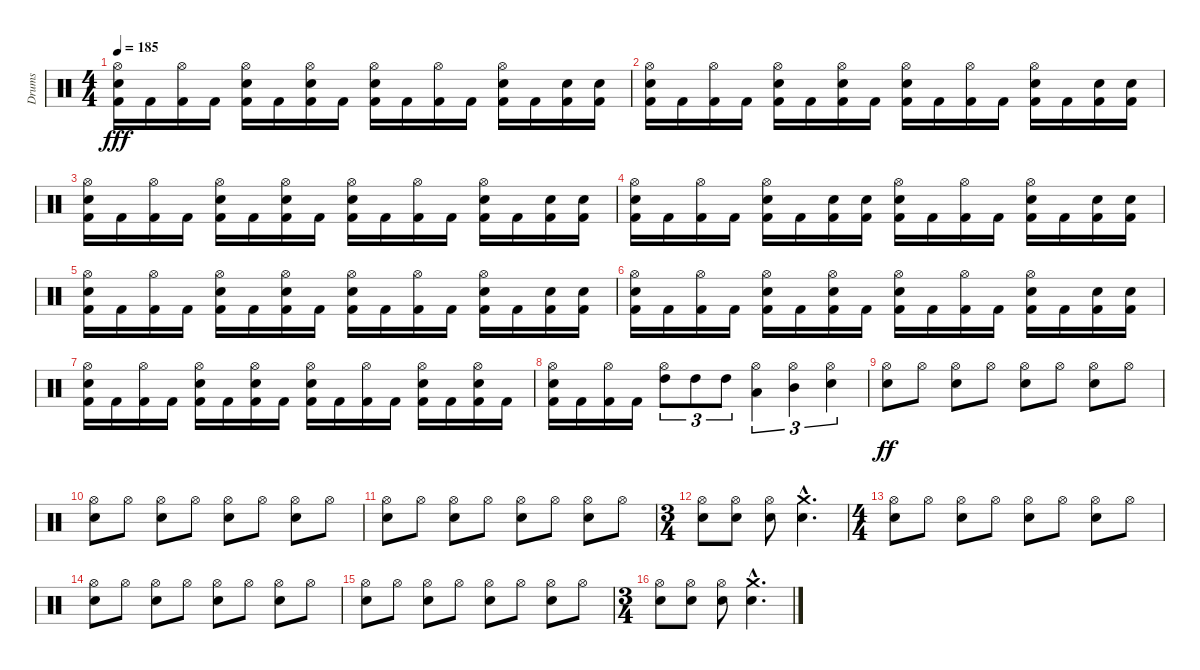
\track ("Drums" "Drums") {instrument percussion}
\staff {score}
\articulation defaults
\ts (4 4)
\tempo 185
\clef neutral
\ks c
("Hi-Hat (open)" "Electric Snare (hit)" "Kick (hit) 2").16{dy fff} "Kick (hit) 2".16 ("Hi-Hat (open)" "Kick (hit) 2").16 "Kick (hit) 2".16 ("Hi-Hat (open)" "Electric Snare (hit)" "Kick (hit) 2").16 "Kick (hit) 2".16 ("Hi-Hat (open)" "Electric Snare (hit)" "Kick (hit) 2").16 "Kick (hit) 2".16 ("Hi-Hat (open)" "Electric Snare (hit)" "Kick (hit) 2").16 "Kick (hit) 2".16 ("Hi-Hat (open)" "Kick (hit) 2").16 "Kick (hit) 2".16 ("Hi-Hat (open)" "Electric Snare (hit)" "Kick (hit) 2").16 "Kick (hit) 2".16 ("Electric Snare (hit)" "Kick (hit) 2").16 ("Electric Snare (hit)" "Kick (hit) 2").16 |
("Hi-Hat (open)" "Electric Snare (hit)" "Kick (hit) 2").16 "Kick (hit) 2".16 ("Hi-Hat (open)" "Kick (hit) 2").16 "Kick (hit) 2".16 ("Hi-Hat (open)" "Electric Snare (hit)" "Kick (hit) 2").16 "Kick (hit) 2".16 ("Hi-Hat (open)" "Electric Snare (hit)" "Kick (hit) 2").16 "Kick (hit) 2".16 ("Hi-Hat (open)" "Electric Snare (hit)" "Kick (hit) 2").16 "Kick (hit) 2".16 ("Hi-Hat (open)" "Kick (hit) 2").16 "Kick (hit) 2".16 ("Hi-Hat (open)" "Electric Snare (hit)" "Kick (hit) 2").16 "Kick (hit) 2".16 ("Electric Snare (hit)" "Kick (hit) 2").16 ("Electric Snare (hit)" "Kick (hit) 2").16 |
("Hi-Hat (open)" "Electric Snare (hit)" "Kick (hit) 2").16 "Kick (hit) 2".16 ("Hi-Hat (open)" "Kick (hit) 2").16 "Kick (hit) 2".16 ("Hi-Hat (open)" "Electric Snare (hit)" "Kick (hit) 2").16 "Kick (hit) 2".16 ("Hi-Hat (open)" "Electric Snare (hit)" "Kick (hit) 2").16 "Kick (hit) 2".16 ("Hi-Hat (open)" "Electric Snare (hit)" "Kick (hit) 2").16 "Kick (hit) 2".16 ("Hi-Hat (open)" "Kick (hit) 2").16 "Kick (hit) 2".16 ("Hi-Hat (open)" "Electric Snare (hit)" "Kick (hit) 2").16 "Kick (hit) 2".16 ("Electric Snare (hit)" "Kick (hit) 2").16 ("Electric Snare (hit)" "Kick (hit) 2").16 |
("Hi-Hat (open)" "Electric Snare (hit)" "Kick (hit) 2").16 "Kick (hit) 2".16 ("Hi-Hat (open)" "Kick (hit) 2").16 "Kick (hit) 2".16 ("Hi-Hat (open)" "Electric Snare (hit)" "Kick (hit) 2").16 "Kick (hit) 2".16 ("Electric Snare (hit)" "Kick (hit) 2").16 ("Electric Snare (hit)" "Kick (hit) 2").16 ("Hi-Hat (open)" "Electric Snare (hit)" "Kick (hit) 2").16 "Kick (hit) 2".16 ("Hi-Hat (open)" "Kick (hit) 2").16 "Kick (hit) 2".16 ("Hi-Hat (open)" "Electric Snare (hit)" "Kick (hit) 2").16 "Kick (hit) 2".16 ("Electric Snare (hit)" "Kick (hit) 2").16 ("Electric Snare (hit)" "Kick (hit) 2").16 |
("Hi-Hat (open)" "Electric Snare (hit)" "Kick (hit) 2").16 "Kick (hit) 2".16 ("Hi-Hat (open)" "Kick (hit) 2").16 "Kick (hit) 2".16 ("Hi-Hat (open)" "Electric Snare (hit)" "Kick (hit) 2").16 "Kick (hit) 2".16 ("Hi-Hat (open)" "Electric Snare (hit)" "Kick (hit) 2").16 "Kick (hit) 2".16 ("Hi-Hat (open)" "Electric Snare (hit)" "Kick (hit) 2").16 "Kick (hit) 2".16 ("Hi-Hat (open)" "Kick (hit) 2").16 "Kick (hit) 2".16 ("Hi-Hat (open)" "Electric Snare (hit)" "Kick (hit) 2").16 "Kick (hit) 2".16 ("Electric Snare (hit)" "Kick (hit) 2").16 ("Electric Snare (hit)" "Kick (hit) 2").16 |
("Hi-Hat (open)" "Electric Snare (hit)" "Kick (hit) 2").16 "Kick (hit) 2".16 ("Hi-Hat (open)" "Kick (hit) 2").16 "Kick (hit) 2".16 ("Hi-Hat (open)" "Electric Snare (hit)" "Kick (hit) 2").16 "Kick (hit) 2".16 ("Hi-Hat (open)" "Electric Snare (hit)" "Kick (hit) 2").16 "Kick (hit) 2".16 ("Hi-Hat (open)" "Electric Snare (hit)" "Kick (hit) 2").16 "Kick (hit) 2".16 ("Hi-Hat (open)" "Kick (hit) 2").16 "Kick (hit) 2".16 ("Hi-Hat (open)" "Electric Snare (hit)" "Kick (hit) 2").16 "Kick (hit) 2".16 ("Electric Snare (hit)" "Kick (hit) 2").16 ("Electric Snare (hit)" "Kick (hit) 2").16 |
("Hi-Hat (open)" "Electric Snare (hit)" "Kick (hit) 2").16 "Kick (hit) 2".16 ("Hi-Hat (open)" "Kick (hit) 2").16 "Kick (hit) 2".16 ("Hi-Hat (open)" "Electric Snare (hit)" "Kick (hit) 2").16 "Kick (hit) 2".16 ("Hi-Hat (open)" "Electric Snare (hit)" "Kick (hit) 2").16 "Kick (hit) 2".16 ("Hi-Hat (open)" "Electric Snare (hit)" "Kick (hit) 2").16 "Kick (hit) 2".16 ("Hi-Hat (open)" "Kick (hit) 2").16 "Kick (hit) 2".16 ("Hi-Hat (open)" "Electric Snare (hit)" "Kick (hit) 2").16 "Kick (hit) 2".16 ("Hi-Hat (open)" "Electric Snare (hit)" "Kick (hit) 2").16 "Kick (hit) 2".16 |
("Hi-Hat (open)" "Electric Snare (hit)" "Kick (hit) 2").16 "Kick (hit) 2".16 ("Hi-Hat (open)" "Kick (hit) 2").16 "Kick (hit) 2".16 ("Hi-Hat (open)" "High Tom (hit)").8{tu (3 2)} "High Tom (hit)".8{tu (3 2)} "High Tom (hit)".8{tu (3 2)} ("Hi-Hat (open)" "Low Tom (hit)").4{tu (3 2)} ("Hi-Hat (open)" "Mid Tom (hit)").4{tu (3 2)} ("Hi-Hat (open)" "Electric Snare (hit)").4{tu (3 2)} |
("Hi-Hat (open)" "Electric Snare (hit)").8{dy ff} "Hi-Hat (open)".8 ("Hi-Hat (open)" "Electric Snare (hit)").8 "Hi-Hat (open)".8 ("Hi-Hat (open)" "Electric Snare (hit)").8 "Hi-Hat (open)".8 ("Hi-Hat (open)" "Electric Snare (hit)").8 "Hi-Hat (open)".8 |
("Hi-Hat (open)" "Electric Snare (hit)").8 "Hi-Hat (open)".8 ("Hi-Hat (open)" "Electric Snare (hit)").8 "Hi-Hat (open)".8 ("Hi-Hat (open)" "Electric Snare (hit)").8 "Hi-Hat (open)".8 ("Hi-Hat (open)" "Electric Snare (hit)").8 "Hi-Hat (open)".8 |
("Hi-Hat (open)" "Electric Snare (hit)").8 "Hi-Hat (open)".8 ("Hi-Hat (open)" "Electric Snare (hit)").8 "Hi-Hat (open)".8 ("Hi-Hat (open)" "Electric Snare (hit)").8 "Hi-Hat (open)".8 ("Hi-Hat (open)" "Electric Snare (hit)").8 "Hi-Hat (open)".8 |
\ts (3 4)
("Electric Snare (hit)" "Hi-Hat (open)").8 ("Electric Snare (hit)" "Hi-Hat (open)").8 ("Electric Snare (hit)" "Hi-Hat (open)").8 ("Electric Snare (hit)"{hac} "Crash medium (hit)"{hac}).4{d} |
\ts (4 4)
("Hi-Hat (open)" "Electric Snare (hit)").8 "Hi-Hat (open)".8 ("Hi-Hat (open)" "Electric Snare (hit)").8 "Hi-Hat (open)".8 ("Hi-Hat (open)" "Electric Snare (hit)").8 "Hi-Hat (open)".8 ("Hi-Hat (open)" "Electric Snare (hit)").8 "Hi-Hat (open)".8 |
("Hi-Hat (open)" "Electric Snare (hit)").8 "Hi-Hat (open)".8 ("Hi-Hat (open)" "Electric Snare (hit)").8 "Hi-Hat (open)".8 ("Hi-Hat (open)" "Electric Snare (hit)").8 "Hi-Hat (open)".8 ("Hi-Hat (open)" "Electric Snare (hit)").8 "Hi-Hat (open)".8 |
("Hi-Hat (open)" "Electric Snare (hit)").8 "Hi-Hat (open)".8 ("Hi-Hat (open)" "Electric Snare (hit)").8 "Hi-Hat (open)".8 ("Hi-Hat (open)" "Electric Snare (hit)").8 "Hi-Hat (open)".8 ("Hi-Hat (open)" "Electric Snare (hit)").8 "Hi-Hat (open)".8 |
\ts (3 4)
("Electric Snare (hit)" "Hi-Hat (open)").8 ("Electric Snare (hit)" "Hi-Hat (open)").8 ("Electric Snare (hit)" "Hi-Hat (open)").8 ("Electric Snare (hit)"{hac} "Crash medium (hit)"{hac}).4{d}
